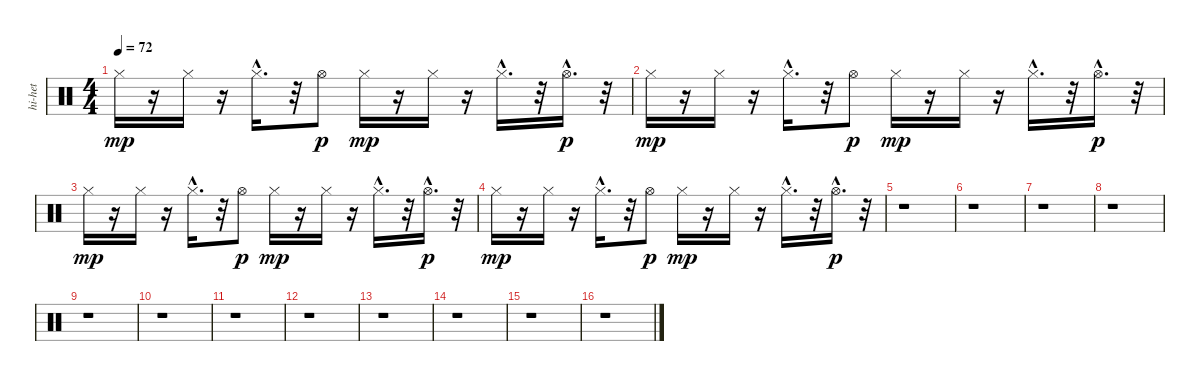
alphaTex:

\track ("hi-het" "hi-het") {instrument percussion}
\staff {score}
\articulation defaults
\ts (4 4)
\tempo 72
\clef neutral
\ks c "Hi-Hat (closed)".16{dy mp}
r.16 "Hi-Hat (closed)".16 r.16 "Hi-Hat (closed)"{hac}.16{d} r.32 "Hi-Hat (open)".8{dy p} "Hi-Hat (closed)".16{dy mp} r.16 "Hi-Hat (closed)".16 r.16 "Hi-Hat (closed)"{hac}.16{d} r.32 "Hi-Hat (open)"{hac}.16{d dy p} r.32 |
"Hi-Hat (closed)".16{dy mp} r.16 "Hi-Hat (closed)".16 r.16 "Hi-Hat (closed)"{hac}.16{d} r.32 "Hi-Hat (open)".8{dy p} "Hi-Hat (closed)".16{dy mp} r.16 "Hi-Hat (closed)".16 r.16 "Hi-Hat (closed)"{hac}.16{d} r.32 "Hi-Hat (open)"{hac}.16{d dy p} r.32 |
"Hi-Hat (closed)".16{dy mp} r.16 "Hi-Hat (closed)".16 r.16 "Hi-Hat (closed)"{hac}.16{d} r.32 "Hi-Hat (open)".8{dy p} "Hi-Hat (closed)".16{dy mp} r.16 "Hi-Hat (closed)".16 r.16 "Hi-Hat (closed)"{hac}.16{d} r.32 "Hi-Hat (open)"{hac}.16{d dy p} r.32 |
"Hi-Hat (closed)".16{dy mp} r.16 "Hi-Hat (closed)".16 r.16 "Hi-Hat (closed)"{hac}.16{d} r.32 "Hi-Hat (open)".8{dy p} "Hi-Hat (closed)".16{dy mp} r.16 "Hi-Hat (closed)".16 r.16 "Hi-Hat (closed)"{hac}.16{d} r.32 "Hi-Hat (open)"{hac}.16{d dy p} r.32 |
r.1 |
r.1 |
r.1 |
r.1 |
r.1 |
r.1 |
r.1 |
r.1 |
r.1 |
r.1 |
r.1 |
r.1
